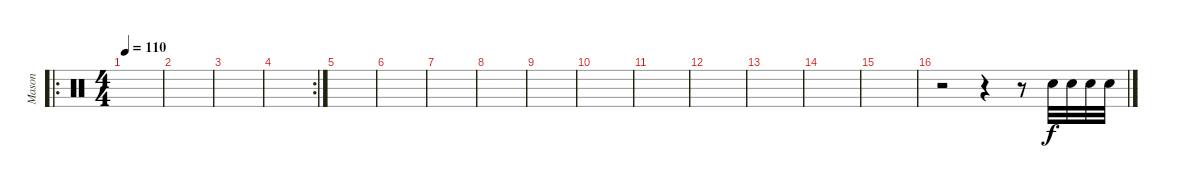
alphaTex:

\track ("Mason" "Mason") {instrument percussion}
\staff {score}
\articulation defaults
\ro
\ts (4 4)
\tempo 110
\clef neutral
\ks c
|
|
|
\rc 2
|
|
|
|
|
|
|
|
|
|
|
|
r.2 r.4 r.8 "Snare (hit) 2".32 "Snare (hit) 2".32 "Snare (hit) 2".32 "Snare (hit) 2".32
